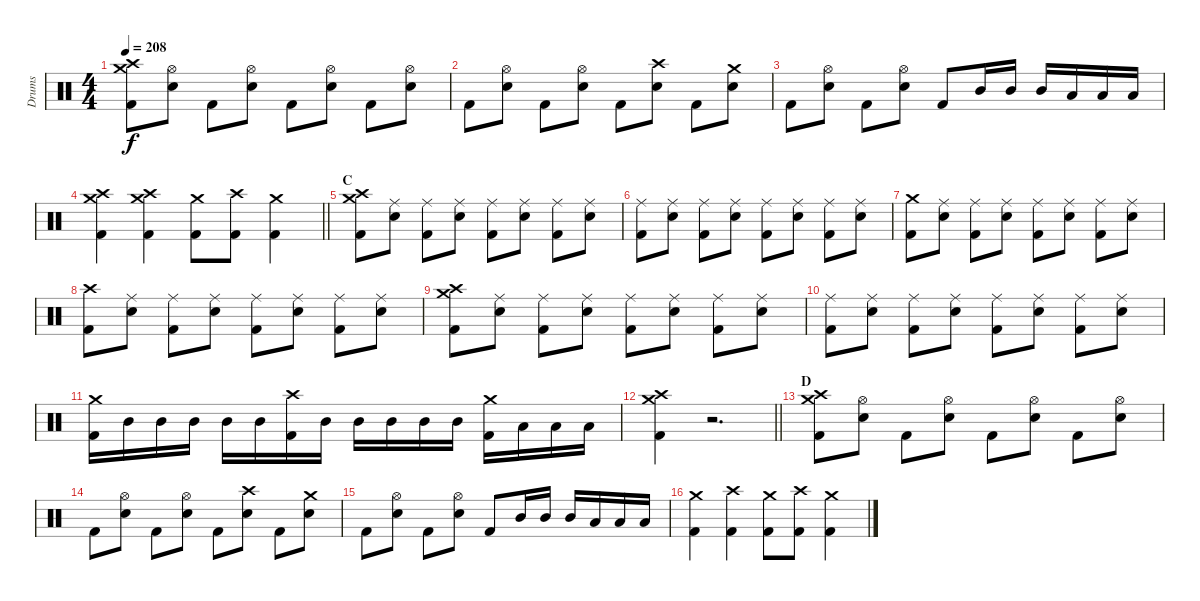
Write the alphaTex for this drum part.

\track ("Drums" "Drums") {instrument percussion}
\staff {score}
\articulation defaults
\ts (4 4)
\tempo 208
\clef neutral
\ks c
("Crash medium (hit)" "Crash high (hit)" "Kick (hit) 2").8{dy f} ("Hi-Hat (open)" "Electric Snare (hit)").8 "Kick (hit) 2".8 ("Hi-Hat (open)" "Electric Snare (hit)").8 "Kick (hit) 2".8 ("Hi-Hat (open)" "Electric Snare (hit)").8 "Kick (hit) 2".8 ("Hi-Hat (open)" "Electric Snare (hit)").8 |
"Kick (hit) 2".8 ("Hi-Hat (open)" "Electric Snare (hit)").8 "Kick (hit) 2".8 ("Hi-Hat (open)" "Electric Snare (hit)").8 "Kick (hit) 2".8 ("Crash high (hit)" "Electric Snare (hit)").8 "Kick (hit) 2".8 ("Crash medium (hit)" "Electric Snare (hit)").8 |
"Kick (hit) 2".8 ("Hi-Hat (open)" "Electric Snare (hit)").8 "Kick (hit) 2".8 ("Hi-Hat (open)" "Electric Snare (hit)").8 "Kick (hit) 2".8 "Mid Tom (hit)".16 "Mid Tom (hit)".16 "Mid Tom (hit)".16 "Low Tom (hit)".16 "Low Tom (hit)".16 "Low Tom (hit)".16 |
\barLineRight lightlight
("Crash medium (hit)" "Crash high (hit)" "Kick (hit) 2").4 ("Crash medium (hit)" "Crash high (hit)" "Kick (hit) 2").4 ("Crash medium (hit)" "Kick (hit) 2").8 ("Crash high (hit)" "Kick (hit) 2").8 ("Crash medium (hit)" "Kick (hit) 2").4 |
\section ("" "C")
("Crash medium (hit)" "Crash high (hit)" "Kick (hit) 2").8 ("Ride (middle)" "Electric Snare (hit)").8 ("Ride (middle)" "Kick (hit) 2").8 ("Ride (middle)" "Electric Snare (hit)").8 ("Ride (middle)" "Kick (hit) 2").8 ("Ride (middle)" "Electric Snare (hit)").8 ("Ride (middle)" "Kick (hit) 2").8 ("Ride (middle)" "Electric Snare (hit)").8 |
("Ride (middle)" "Kick (hit) 2").8 ("Ride (middle)" "Electric Snare (hit)").8 ("Ride (middle)" "Kick (hit) 2").8 ("Ride (middle)" "Electric Snare (hit)").8 ("Ride (middle)" "Kick (hit) 2").8 ("Ride (middle)" "Electric Snare (hit)").8 ("Ride (middle)" "Kick (hit) 2").8 ("Ride (middle)" "Electric Snare (hit)").8 |
("Crash medium (hit)" "Kick (hit) 2").8 ("Ride (middle)" "Electric Snare (hit)").8 ("Ride (middle)" "Kick (hit) 2").8 ("Ride (middle)" "Electric Snare (hit)").8 ("Ride (middle)" "Kick (hit) 2").8 ("Ride (middle)" "Electric Snare (hit)").8 ("Ride (middle)" "Kick (hit) 2").8 ("Ride (middle)" "Electric Snare (hit)").8 |
("Crash high (hit)" "Kick (hit) 2").8 ("Ride (middle)" "Electric Snare (hit)").8 ("Ride (middle)" "Kick (hit) 2").8 ("Ride (middle)" "Electric Snare (hit)").8 ("Ride (middle)" "Kick (hit) 2").8 ("Ride (middle)" "Electric Snare (hit)").8 ("Ride (middle)" "Kick (hit) 2").8 ("Ride (middle)" "Electric Snare (hit)").8 |
("Crash medium (hit)" "Crash high (hit)" "Kick (hit) 2").8 ("Ride (middle)" "Electric Snare (hit)").8 ("Ride (middle)" "Kick (hit) 2").8 ("Ride (middle)" "Electric Snare (hit)").8 ("Ride (middle)" "Kick (hit) 2").8 ("Ride (middle)" "Electric Snare (hit)").8 ("Ride (middle)" "Kick (hit) 2").8 ("Ride (middle)" "Electric Snare (hit)").8 |
("Ride (middle)" "Kick (hit) 2").8 ("Ride (middle)" "Electric Snare (hit)").8 ("Ride (middle)" "Kick (hit) 2").8 ("Ride (middle)" "Electric Snare (hit)").8 ("Ride (middle)" "Kick (hit) 2").8 ("Ride (middle)" "Electric Snare (hit)").8 ("Ride (middle)" "Kick (hit) 2").8 ("Ride (middle)" "Electric Snare (hit)").8 |
("Crash medium (hit)" "Kick (hit) 2").16 "Mid Tom (hit)".16 "Mid Tom (hit)".16 "Mid Tom (hit)".16 "Mid Tom (hit)".16 "Mid Tom (hit)".16 ("Crash high (hit)" "Kick (hit) 2").16 "Mid Tom (hit)".16 "Mid Tom (hit)".16 "Mid Tom (hit)".16 "Mid Tom (hit)".16 "Mid Tom (hit)".16 ("Crash medium (hit)" "Kick (hit) 2").16 "Low Tom (hit)".16 "Low Tom (hit)".16 "Low Tom (hit)".16 |
\barLineRight lightlight
("Crash medium (hit)" "Crash high (hit)" "Kick (hit) 2").4 r.2{d volume 0} |
\section ("" "D")
("Crash medium (hit)" "Crash high (hit)" "Kick (hit) 2").8{volume 14} ("Hi-Hat (open)" "Electric Snare (hit)").8 "Kick (hit) 2".8 ("Hi-Hat (open)" "Electric Snare (hit)").8 "Kick (hit) 2".8 ("Hi-Hat (open)" "Electric Snare (hit)").8 "Kick (hit) 2".8 ("Hi-Hat (open)" "Electric Snare (hit)").8 |
"Kick (hit) 2".8 ("Hi-Hat (open)" "Electric Snare (hit)").8 "Kick (hit) 2".8 ("Hi-Hat (open)" "Electric Snare (hit)").8 "Kick (hit) 2".8 ("Crash high (hit)" "Electric Snare (hit)").8 "Kick (hit) 2".8 ("Crash medium (hit)" "Electric Snare (hit)").8 |
"Kick (hit) 2".8 ("Hi-Hat (open)" "Electric Snare (hit)").8 "Kick (hit) 2".8 ("Hi-Hat (open)" "Electric Snare (hit)").8 "Kick (hit) 2".8 "Mid Tom (hit)".16 "Mid Tom (hit)".16 "Mid Tom (hit)".16 "Low Tom (hit)".16 "Low Tom (hit)".16 "Low Tom (hit)".16 |
("Crash medium (hit)" "Kick (hit) 2").4 ("Crash high (hit)" "Kick (hit) 2").4 ("Crash medium (hit)" "Kick (hit) 2").8 ("Crash high (hit)" "Kick (hit) 2").8 ("Crash medium (hit)" "Kick (hit) 2").4
